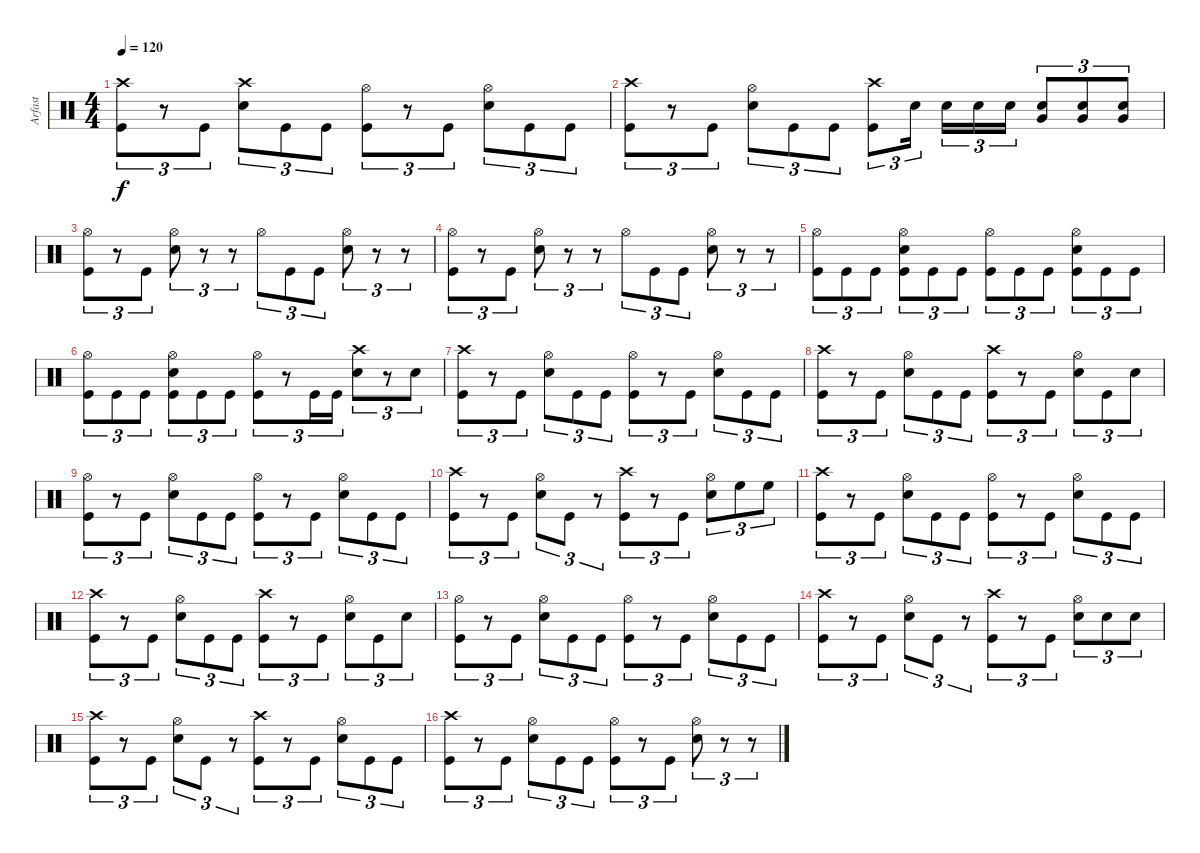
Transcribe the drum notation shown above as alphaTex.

\track ("Arfast" "Arfast") {instrument percussion}
\staff {score}
\articulation defaults
\ts (4 4)
\tempo 120
\clef neutral
\ks c
("Crash high (hit)" "Kick (hit)").8{tu (3 2) dy f} r.8{tu (3 2)} "Kick (hit)".8{tu (3 2)} ("Crash high (hit)" "Snare (hit) 2").8{tu (3 2)} "Kick (hit)".8{tu (3 2)} "Kick (hit)".8{tu (3 2)} ("Hi-Hat (open)" "Kick (hit)").8{tu (3 2)} r.8{tu (3 2)} "Kick (hit)".8{tu (3 2)} ("Hi-Hat (open)" "Snare (hit) 2").8{tu (3 2)} "Kick (hit)".8{tu (3 2)} "Kick (hit)".8{tu (3 2)} |
("Crash high (hit)" "Kick (hit)").8{tu (3 2)} r.8{tu (3 2)} "Kick (hit)".8{tu (3 2)} ("Hi-Hat (open)" "Snare (hit) 2").8{tu (3 2)} "Kick (hit)".8{tu (3 2)} "Kick (hit)".8{tu (3 2)} ("Crash high (hit)" "Kick (hit)").8{tu (3 2)} "Snare (hit) 2".16{tu (3 2) beam splitsecondary} "Snare (hit) 2".16{tu (3 2)} "Snare (hit) 2".16{tu (3 2)} "Snare (hit) 2".16{tu (3 2)} ("Snare (hit) 2" "Very Low Tom (hit)").8{tu (3 2)} ("Snare (hit) 2" "Very Low Tom (hit)").8{tu (3 2)} ("Snare (hit) 2" "Very Low Tom (hit)").8{tu (3 2)} |
("Hi-Hat (open)" "Kick (hit)").8{tu (3 2)} r.8{tu (3 2)} "Kick (hit)".8{tu (3 2)} ("Hi-Hat (open)" "Snare (hit) 2").8{tu (3 2)} r.8{tu (3 2)} r.8{tu (3 2)} "Hi-Hat (open)".8{tu (3 2)} "Kick (hit)".8{tu (3 2)} "Kick (hit)".8{tu (3 2)} ("Hi-Hat (open)" "Snare (hit) 2").8{tu (3 2)} r.8{tu (3 2)} r.8{tu (3 2)} |
("Hi-Hat (open)" "Kick (hit)").8{tu (3 2)} r.8{tu (3 2)} "Kick (hit)".8{tu (3 2)} ("Hi-Hat (open)" "Snare (hit) 2").8{tu (3 2)} r.8{tu (3 2)} r.8{tu (3 2)} "Hi-Hat (open)".8{tu (3 2)} "Kick (hit)".8{tu (3 2)} "Kick (hit)".8{tu (3 2)} ("Hi-Hat (open)" "Snare (hit) 2").8{tu (3 2)} r.8{tu (3 2)} r.8{tu (3 2)} |
("Hi-Hat (open)" "Kick (hit)").8{tu (3 2)} "Kick (hit)".8{tu (3 2)} "Kick (hit)".8{tu (3 2)} ("Snare (hit) 2" "Hi-Hat (open)" "Kick (hit)").8{tu (3 2)} "Kick (hit)".8{tu (3 2)} "Kick (hit)".8{tu (3 2)} ("Hi-Hat (open)" "Kick (hit)").8{tu (3 2)} "Kick (hit)".8{tu (3 2)} "Kick (hit)".8{tu (3 2)} ("Snare (hit) 2" "Hi-Hat (open)" "Kick (hit)").8{tu (3 2)} "Kick (hit)".8{tu (3 2)} "Kick (hit)".8{tu (3 2)} |
("Hi-Hat (open)" "Kick (hit)").8{tu (3 2)} "Kick (hit)".8{tu (3 2)} "Kick (hit)".8{tu (3 2)} ("Snare (hit) 2" "Hi-Hat (open)" "Kick (hit)").8{tu (3 2)} "Kick (hit)".8{tu (3 2)} "Kick (hit)".8{tu (3 2)} ("Hi-Hat (open)" "Kick (hit)").8{tu (3 2)} r.8{tu (3 2)} "Kick (hit)".16{tu (3 2)} "Kick (hit)".16{tu (3 2)} ("Crash high (hit)" "Snare (hit) 2").8{tu (3 2)} r.8{tu (3 2)} "Snare (hit) 2".8{tu (3 2)} |
("Crash high (hit)" "Kick (hit)").8{tu (3 2)} r.8{tu (3 2)} "Kick (hit)".8{tu (3 2)} ("Hi-Hat (open)" "Snare (hit) 2").8{tu (3 2)} "Kick (hit)".8{tu (3 2)} "Kick (hit)".8{tu (3 2)} ("Hi-Hat (open)" "Kick (hit)").8{tu (3 2)} r.8{tu (3 2)} "Kick (hit)".8{tu (3 2)} ("Hi-Hat (open)" "Snare (hit) 2").8{tu (3 2)} "Kick (hit)".8{tu (3 2)} "Kick (hit)".8{tu (3 2)} |
("Crash high (hit)" "Kick (hit)").8{tu (3 2)} r.8{tu (3 2)} "Kick (hit)".8{tu (3 2)} ("Hi-Hat (open)" "Snare (hit) 2").8{tu (3 2)} "Kick (hit)".8{tu (3 2)} "Kick (hit)".8{tu (3 2)} ("Crash high (hit)" "Kick (hit)").8{tu (3 2)} r.8{tu (3 2)} "Kick (hit)".8{tu (3 2)} ("Hi-Hat (open)" "Snare (hit) 2").8{tu (3 2)} "Kick (hit)".8{tu (3 2)} "Snare (hit) 2".8{tu (3 2)} |
("Hi-Hat (open)" "Kick (hit)").8{tu (3 2)} r.8{tu (3 2)} "Kick (hit)".8{tu (3 2)} ("Hi-Hat (open)" "Snare (hit) 2").8{tu (3 2)} "Kick (hit)".8{tu (3 2)} "Kick (hit)".8{tu (3 2)} ("Hi-Hat (open)" "Kick (hit)").8{tu (3 2)} r.8{tu (3 2)} "Kick (hit)".8{tu (3 2)} ("Hi-Hat (open)" "Snare (hit) 2").8{tu (3 2)} "Kick (hit)".8{tu (3 2)} "Kick (hit)".8{tu (3 2)} |
("Crash high (hit)" "Kick (hit)").8{tu (3 2)} r.8{tu (3 2)} "Kick (hit)".8{tu (3 2)} ("Hi-Hat (open)" "Snare (hit) 2").8{tu (3 2)} "Kick (hit)".8{tu (3 2)} r.8{tu (3 2)} ("Crash high (hit)" "Kick (hit)").8{tu (3 2)} r.8{tu (3 2)} "Kick (hit)".8{tu (3 2)} ("Hi-Hat (open)" "Snare (hit) 2").8{tu (3 2)} "High Floor Tom (hit)".8{tu (3 2)} "High Floor Tom (hit)".8{tu (3 2)} |
("Crash high (hit)" "Kick (hit)").8{tu (3 2)} r.8{tu (3 2)} "Kick (hit)".8{tu (3 2)} ("Hi-Hat (open)" "Snare (hit) 2").8{tu (3 2)} "Kick (hit)".8{tu (3 2)} "Kick (hit)".8{tu (3 2)} ("Hi-Hat (open)" "Kick (hit)").8{tu (3 2)} r.8{tu (3 2)} "Kick (hit)".8{tu (3 2)} ("Hi-Hat (open)" "Snare (hit) 2").8{tu (3 2)} "Kick (hit)".8{tu (3 2)} "Kick (hit)".8{tu (3 2)} |
("Crash high (hit)" "Kick (hit)").8{tu (3 2)} r.8{tu (3 2)} "Kick (hit)".8{tu (3 2)} ("Hi-Hat (open)" "Snare (hit) 2").8{tu (3 2)} "Kick (hit)".8{tu (3 2)} "Kick (hit)".8{tu (3 2)} ("Crash high (hit)" "Kick (hit)").8{tu (3 2)} r.8{tu (3 2)} "Kick (hit)".8{tu (3 2)} ("Hi-Hat (open)" "Snare (hit) 2").8{tu (3 2)} "Kick (hit)".8{tu (3 2)} "Snare (hit) 2".8{tu (3 2)} |
("Hi-Hat (open)" "Kick (hit)").8{tu (3 2)} r.8{tu (3 2)} "Kick (hit)".8{tu (3 2)} ("Hi-Hat (open)" "Snare (hit) 2").8{tu (3 2)} "Kick (hit)".8{tu (3 2)} "Kick (hit)".8{tu (3 2)} ("Hi-Hat (open)" "Kick (hit)").8{tu (3 2)} r.8{tu (3 2)} "Kick (hit)".8{tu (3 2)} ("Hi-Hat (open)" "Snare (hit) 2").8{tu (3 2)} "Kick (hit)".8{tu (3 2)} "Kick (hit)".8{tu (3 2)} |
("Crash high (hit)" "Kick (hit)").8{tu (3 2)} r.8{tu (3 2)} "Kick (hit)".8{tu (3 2)} ("Hi-Hat (open)" "Snare (hit) 2").8{tu (3 2)} "Kick (hit)".8{tu (3 2)} r.8{tu (3 2)} ("Crash high (hit)" "Kick (hit)").8{tu (3 2)} r.8{tu (3 2)} "Kick (hit)".8{tu (3 2)} ("Hi-Hat (open)" "Snare (hit) 2").8{tu (3 2)} "Snare (hit) 2".8{tu (3 2)} "Snare (hit) 2".8{tu (3 2)} |
("Crash high (hit)" "Kick (hit)").8{tu (3 2)} r.8{tu (3 2)} "Kick (hit)".8{tu (3 2)} ("Hi-Hat (open)" "Snare (hit) 2").8{tu (3 2)} "Kick (hit)".8{tu (3 2)} r.8{tu (3 2)} ("Crash high (hit)" "Kick (hit)").8{tu (3 2)} r.8{tu (3 2)} "Kick (hit)".8{tu (3 2)} ("Hi-Hat (open)" "Snare (hit) 2").8{tu (3 2)} "Kick (hit)".8{tu (3 2)} "Kick (hit)".8{tu (3 2)} |
("Crash high (hit)" "Kick (hit)").8{tu (3 2)} r.8{tu (3 2)} "Kick (hit)".8{tu (3 2)} ("Hi-Hat (open)" "Snare (hit) 2").8{tu (3 2)} "Kick (hit)".8{tu (3 2)} "Kick (hit)".8{tu (3 2)} ("Hi-Hat (open)" "Kick (hit)").8{tu (3 2)} r.8{tu (3 2)} "Kick (hit)".8{tu (3 2)} ("Hi-Hat (open)" "Snare (hit) 2").8{tu (3 2)} r.8{tu (3 2)} r.8{tu (3 2)}
